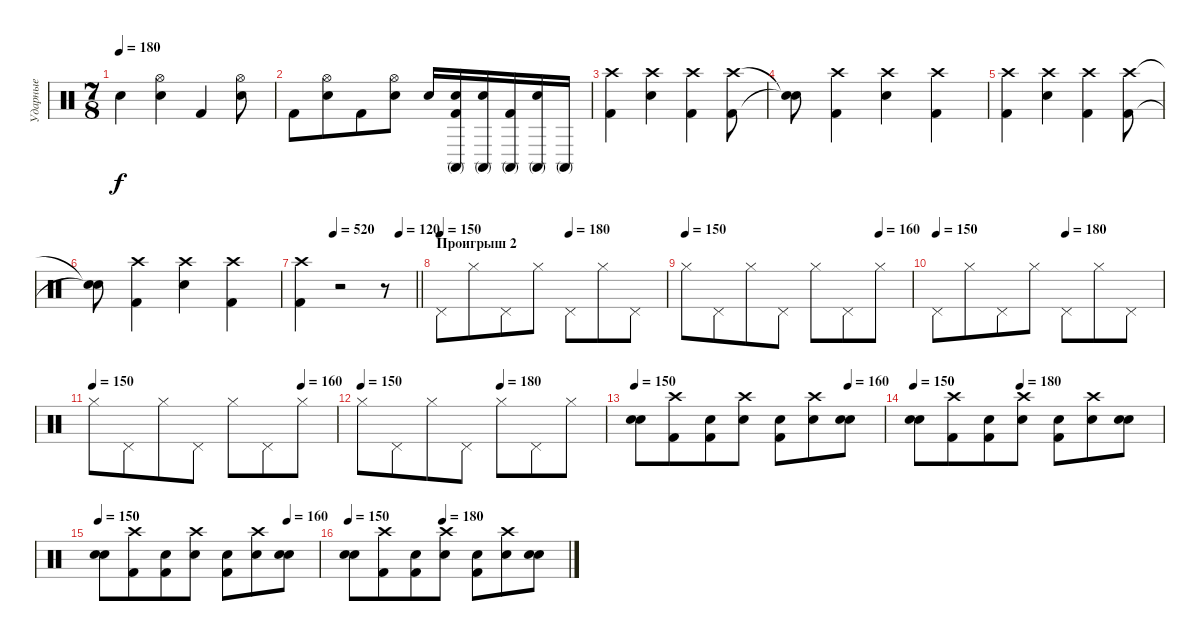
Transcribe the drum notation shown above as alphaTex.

\track ("Ударные" "Ударные") {instrument percussion}
\staff {score}
\articulation defaults
\ts (7 8)
\tempo 180
\clef neutral
\ks c "Electric Snare (hit)".4{dy f}
("Hi-Hat (open)" "Snare (hit) 2").4 "Kick (hit) 2".4 ("Hi-Hat (open)" "Snare (hit) 2").8 |
"Kick (hit) 2".8 ("Hi-Hat (open)" "Snare (hit) 2").8 "Kick (hit) 2".8 ("Hi-Hat (open)" "Snare (hit) 2").8 "Electric Snare (hit)".16 ("Electric Snare (hit)" "Conga high (mute)" "Kick (hit) 2").16 ("Electric Snare (hit)" "Conga high (mute)").16 ("Conga high (mute)" "Kick (hit) 2").16 ("Electric Snare (hit)" "Conga high (mute)").16 "Conga high (mute)".16 |
("Crash high (hit)" "Kick (hit) 2").4 ("Crash high (hit)" "Snare (hit) 2").4 ("Crash high (hit)" "Kick (hit) 2").4 ("Crash high (hit)" "Kick (hit) 2").8 |
("Snare (hit)"{t} "Snare (hit)"{t}).8 ("Crash high (hit)" "Kick (hit) 2").4 ("Crash high (hit)" "Snare (hit) 2").4 ("Crash high (hit)" "Kick (hit) 2").4 |
("Crash high (hit)" "Kick (hit) 2").4 ("Crash high (hit)" "Snare (hit) 2").4 ("Crash high (hit)" "Kick (hit) 2").4 ("Crash high (hit)" "Kick (hit) 2").8 |
("Snare (hit)"{t} "Snare (hit)"{t}).8 ("Crash high (hit)" "Kick (hit) 2").4 ("Crash high (hit)" "Snare (hit) 2").4 ("Crash high (hit)" "Kick (hit) 2").4 |
\tempo (520 0.2857142857142857)
\tempo (120 0.8571428571428571)
\barLineRight lightlight
("Crash high (hit)" "Kick (hit) 2").4 r.2 r.8 |
\section ("" "Проигрыш 2")
\tempo 150
\tempo (180 0.5714285714285714)
"Pedal Hi-Hat (hit)".8 "Hi-Hat (closed)".8 "Pedal Hi-Hat (hit)".8 "Hi-Hat (closed)".8 "Pedal Hi-Hat (hit)".8 "Hi-Hat (closed)".8 "Pedal Hi-Hat (hit)".8 |
\tempo 150
\tempo (160 0.8571428571428571)
"Hi-Hat (closed)".8 "Pedal Hi-Hat (hit)".8 "Hi-Hat (closed)".8 "Pedal Hi-Hat (hit)".8 "Hi-Hat (closed)".8 "Pedal Hi-Hat (hit)".8 "Hi-Hat (closed)".8 |
\tempo 150
\tempo (180 0.5714285714285714)
"Pedal Hi-Hat (hit)".8 "Hi-Hat (closed)".8 "Pedal Hi-Hat (hit)".8 "Hi-Hat (closed)".8 "Pedal Hi-Hat (hit)".8 "Hi-Hat (closed)".8 "Pedal Hi-Hat (hit)".8 |
\tempo 150
\tempo (160 0.8571428571428571)
"Hi-Hat (closed)".8 "Pedal Hi-Hat (hit)".8 "Hi-Hat (closed)".8 "Pedal Hi-Hat (hit)".8 "Hi-Hat (closed)".8 "Pedal Hi-Hat (hit)".8 "Hi-Hat (closed)".8 |
\tempo 150
\tempo (180 0.5714285714285714)
"Hi-Hat (closed)".8 "Pedal Hi-Hat (hit)".8 "Hi-Hat (closed)".8 "Pedal Hi-Hat (hit)".8 "Hi-Hat (closed)".8 "Pedal Hi-Hat (hit)".8 "Hi-Hat (closed)".8 |
\tempo 150
\tempo (160 0.8571428571428571)
("Electric Snare (hit)" "Snare (hit) 2").8 ("Crash high (hit)" "Kick (hit) 2").8 ("Electric Snare (hit)" "Kick (hit) 2").8 ("Crash high (hit)" "Snare (hit) 2").8 ("Electric Snare (hit)" "Kick (hit) 2").8 ("Crash high (hit)" "Snare (hit) 2").8 ("Electric Snare (hit)" "Snare (hit) 2").8 |
\tempo 150
\tempo (180 0.42857142857142855)
("Electric Snare (hit)" "Snare (hit) 2").8 ("Crash high (hit)" "Kick (hit) 2").8 ("Electric Snare (hit)" "Kick (hit) 2").8 ("Crash high (hit)" "Snare (hit) 2").8 ("Electric Snare (hit)" "Kick (hit) 2").8 ("Crash high (hit)" "Snare (hit) 2").8 ("Electric Snare (hit)" "Snare (hit) 2").8 |
\tempo 150
\tempo (160 0.8571428571428571)
("Electric Snare (hit)" "Snare (hit) 2").8 ("Crash high (hit)" "Kick (hit) 2").8 ("Electric Snare (hit)" "Kick (hit) 2").8 ("Crash high (hit)" "Snare (hit) 2").8 ("Electric Snare (hit)" "Kick (hit) 2").8 ("Crash high (hit)" "Snare (hit) 2").8 ("Electric Snare (hit)" "Snare (hit) 2").8 |
\tempo 150
\tempo (180 0.42857142857142855)
("Electric Snare (hit)" "Snare (hit) 2").8 ("Crash high (hit)" "Kick (hit) 2").8 ("Electric Snare (hit)" "Kick (hit) 2").8 ("Crash high (hit)" "Snare (hit) 2").8 ("Electric Snare (hit)" "Kick (hit) 2").8 ("Crash high (hit)" "Snare (hit) 2").8 ("Electric Snare (hit)" "Snare (hit) 2").8
